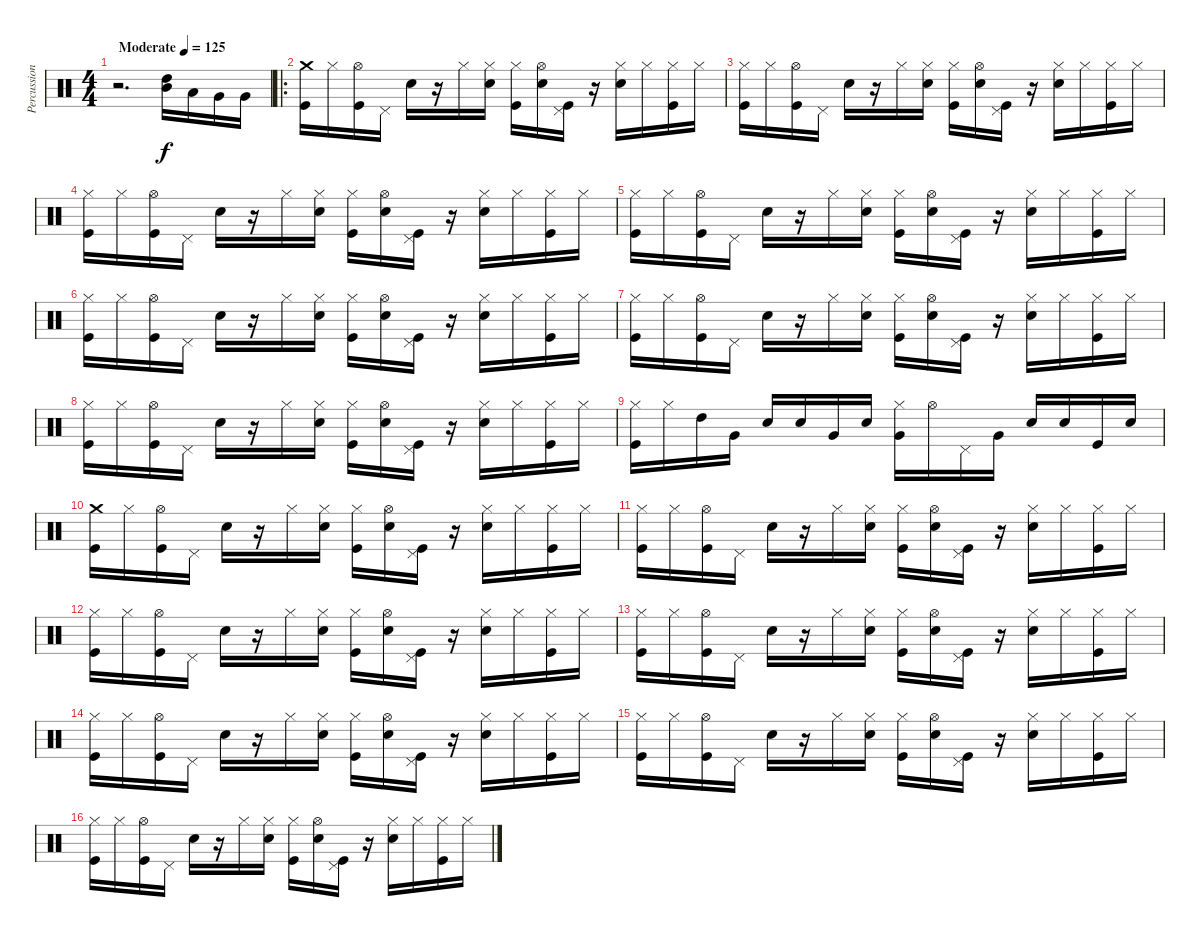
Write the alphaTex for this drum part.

\track ("Percussion" "Percussion") {instrument percussion}
\staff {score}
\articulation defaults
\ts (4 4)
\tempo (125 "Moderate")
\clef neutral
\ks c
r.2{d dy f} ("High Tom (hit)" "Mid Tom (hit)").16{bu 480} "Low Tom (hit)".16 "Very Low Tom (hit)".16 "Very Low Tom (hit)".16 |
\ro
("Crash medium (hit)" "Kick (hit)").16 "Hi-Hat (closed)".16 ("Hi-Hat (open)" "Kick (hit)").16 "Pedal Hi-Hat (hit)".16 "Electric Snare (hit)".16 r.16 "Hi-Hat (closed)".16 ("Hi-Hat (closed)" "Electric Snare (hit)").16 ("Hi-Hat (closed)" "Kick (hit)").16 ("Hi-Hat (open)" "Electric Snare (hit)").16 ("Pedal Hi-Hat (hit)" "Kick (hit)").16 r.16 ("Hi-Hat (closed)" "Electric Snare (hit)").16 "Hi-Hat (closed)".16 ("Hi-Hat (closed)" "Kick (hit)").16 "Hi-Hat (closed)".16 |
("Hi-Hat (closed)" "Kick (hit)").16 "Hi-Hat (closed)".16 ("Hi-Hat (open)" "Kick (hit)").16 "Pedal Hi-Hat (hit)".16 "Electric Snare (hit)".16 r.16 "Hi-Hat (closed)".16 ("Hi-Hat (closed)" "Electric Snare (hit)").16 ("Hi-Hat (closed)" "Kick (hit)").16 ("Hi-Hat (open)" "Electric Snare (hit)").16 ("Pedal Hi-Hat (hit)" "Kick (hit)").16 r.16 ("Hi-Hat (closed)" "Electric Snare (hit)").16 "Hi-Hat (closed)".16 ("Hi-Hat (closed)" "Kick (hit)").16 "Hi-Hat (closed)".16 |
("Hi-Hat (closed)" "Kick (hit)").16 "Hi-Hat (closed)".16 ("Hi-Hat (open)" "Kick (hit)").16 "Pedal Hi-Hat (hit)".16 "Electric Snare (hit)".16 r.16 "Hi-Hat (closed)".16 ("Hi-Hat (closed)" "Electric Snare (hit)").16 ("Hi-Hat (closed)" "Kick (hit)").16 ("Hi-Hat (open)" "Electric Snare (hit)").16 ("Pedal Hi-Hat (hit)" "Kick (hit)").16 r.16 ("Hi-Hat (closed)" "Electric Snare (hit)").16 "Hi-Hat (closed)".16 ("Hi-Hat (closed)" "Kick (hit)").16 "Hi-Hat (closed)".16 |
("Hi-Hat (closed)" "Kick (hit)").16 "Hi-Hat (closed)".16 ("Hi-Hat (open)" "Kick (hit)").16 "Pedal Hi-Hat (hit)".16 "Electric Snare (hit)".16 r.16 "Hi-Hat (closed)".16 ("Hi-Hat (closed)" "Electric Snare (hit)").16 ("Hi-Hat (closed)" "Kick (hit)").16 ("Hi-Hat (open)" "Electric Snare (hit)").16 ("Pedal Hi-Hat (hit)" "Kick (hit)").16 r.16 ("Hi-Hat (closed)" "Electric Snare (hit)").16 "Hi-Hat (closed)".16 ("Hi-Hat (closed)" "Kick (hit)").16 "Hi-Hat (closed)".16 |
("Hi-Hat (closed)" "Kick (hit)").16 "Hi-Hat (closed)".16 ("Hi-Hat (open)" "Kick (hit)").16 "Pedal Hi-Hat (hit)".16 "Electric Snare (hit)".16 r.16 "Hi-Hat (closed)".16 ("Hi-Hat (closed)" "Electric Snare (hit)").16 ("Hi-Hat (closed)" "Kick (hit)").16 ("Hi-Hat (open)" "Electric Snare (hit)").16 ("Pedal Hi-Hat (hit)" "Kick (hit)").16 r.16 ("Hi-Hat (closed)" "Electric Snare (hit)").16 "Hi-Hat (closed)".16 ("Hi-Hat (closed)" "Kick (hit)").16 "Hi-Hat (closed)".16 |
("Hi-Hat (closed)" "Kick (hit)").16 "Hi-Hat (closed)".16 ("Hi-Hat (open)" "Kick (hit)").16 "Pedal Hi-Hat (hit)".16 "Electric Snare (hit)".16 r.16 "Hi-Hat (closed)".16 ("Hi-Hat (closed)" "Electric Snare (hit)").16 ("Hi-Hat (closed)" "Kick (hit)").16 ("Hi-Hat (open)" "Electric Snare (hit)").16 ("Pedal Hi-Hat (hit)" "Kick (hit)").16 r.16 ("Hi-Hat (closed)" "Electric Snare (hit)").16 "Hi-Hat (closed)".16 ("Hi-Hat (closed)" "Kick (hit)").16 "Hi-Hat (closed)".16 |
("Hi-Hat (closed)" "Kick (hit)").16 "Hi-Hat (closed)".16 ("Hi-Hat (open)" "Kick (hit)").16 "Pedal Hi-Hat (hit)".16 "Electric Snare (hit)".16 r.16 "Hi-Hat (closed)".16 ("Hi-Hat (closed)" "Electric Snare (hit)").16 ("Hi-Hat (closed)" "Kick (hit)").16 ("Hi-Hat (open)" "Electric Snare (hit)").16 ("Pedal Hi-Hat (hit)" "Kick (hit)").16 r.16 ("Hi-Hat (closed)" "Electric Snare (hit)").16 "Hi-Hat (closed)".16 ("Hi-Hat (closed)" "Kick (hit)").16 "Hi-Hat (closed)".16 |
("Hi-Hat (closed)" "Kick (hit)").16 "Hi-Hat (closed)".16 "High Tom (hit)".16 "Very Low Tom (hit)".16 "Electric Snare (hit)".16 "Electric Snare (hit)".16 "Very Low Tom (hit)".16 "Electric Snare (hit)".16 ("Hi-Hat (closed)" "Very Low Tom (hit)").16 "Hi-Hat (open)".16 "Pedal Hi-Hat (hit)".16 "Very Low Tom (hit)".16 "Electric Snare (hit)".16 "Electric Snare (hit)".16 "Kick (hit)".16 "Electric Snare (hit)".16 |
("Crash medium (hit)" "Kick (hit)").16 "Hi-Hat (closed)".16 ("Hi-Hat (open)" "Kick (hit)").16 "Pedal Hi-Hat (hit)".16 "Electric Snare (hit)".16 r.16 "Hi-Hat (closed)".16 ("Hi-Hat (closed)" "Electric Snare (hit)").16 ("Hi-Hat (closed)" "Kick (hit)").16 ("Hi-Hat (open)" "Electric Snare (hit)").16 ("Pedal Hi-Hat (hit)" "Kick (hit)").16 r.16 ("Hi-Hat (closed)" "Electric Snare (hit)").16 "Hi-Hat (closed)".16 ("Hi-Hat (closed)" "Kick (hit)").16 "Hi-Hat (closed)".16 |
("Hi-Hat (closed)" "Kick (hit)").16 "Hi-Hat (closed)".16 ("Hi-Hat (open)" "Kick (hit)").16 "Pedal Hi-Hat (hit)".16 "Electric Snare (hit)".16 r.16 "Hi-Hat (closed)".16 ("Hi-Hat (closed)" "Electric Snare (hit)").16 ("Hi-Hat (closed)" "Kick (hit)").16 ("Hi-Hat (open)" "Electric Snare (hit)").16 ("Pedal Hi-Hat (hit)" "Kick (hit)").16 r.16 ("Hi-Hat (closed)" "Electric Snare (hit)").16 "Hi-Hat (closed)".16 ("Hi-Hat (closed)" "Kick (hit)").16 "Hi-Hat (closed)".16 |
("Hi-Hat (closed)" "Kick (hit)").16 "Hi-Hat (closed)".16 ("Hi-Hat (open)" "Kick (hit)").16 "Pedal Hi-Hat (hit)".16 "Electric Snare (hit)".16 r.16 "Hi-Hat (closed)".16 ("Hi-Hat (closed)" "Electric Snare (hit)").16 ("Hi-Hat (closed)" "Kick (hit)").16 ("Hi-Hat (open)" "Electric Snare (hit)").16 ("Pedal Hi-Hat (hit)" "Kick (hit)").16 r.16 ("Hi-Hat (closed)" "Electric Snare (hit)").16 "Hi-Hat (closed)".16 ("Hi-Hat (closed)" "Kick (hit)").16 "Hi-Hat (closed)".16 |
("Hi-Hat (closed)" "Kick (hit)").16 "Hi-Hat (closed)".16 ("Hi-Hat (open)" "Kick (hit)").16 "Pedal Hi-Hat (hit)".16 "Electric Snare (hit)".16 r.16 "Hi-Hat (closed)".16 ("Hi-Hat (closed)" "Electric Snare (hit)").16 ("Hi-Hat (closed)" "Kick (hit)").16 ("Hi-Hat (open)" "Electric Snare (hit)").16 ("Pedal Hi-Hat (hit)" "Kick (hit)").16 r.16 ("Hi-Hat (closed)" "Electric Snare (hit)").16 "Hi-Hat (closed)".16 ("Hi-Hat (closed)" "Kick (hit)").16 "Hi-Hat (closed)".16 |
("Hi-Hat (closed)" "Kick (hit)").16 "Hi-Hat (closed)".16 ("Hi-Hat (open)" "Kick (hit)").16 "Pedal Hi-Hat (hit)".16 "Electric Snare (hit)".16 r.16 "Hi-Hat (closed)".16 ("Hi-Hat (closed)" "Electric Snare (hit)").16 ("Hi-Hat (closed)" "Kick (hit)").16 ("Hi-Hat (open)" "Electric Snare (hit)").16 ("Pedal Hi-Hat (hit)" "Kick (hit)").16 r.16 ("Hi-Hat (closed)" "Electric Snare (hit)").16 "Hi-Hat (closed)".16 ("Hi-Hat (closed)" "Kick (hit)").16 "Hi-Hat (closed)".16 |
("Hi-Hat (closed)" "Kick (hit)").16 "Hi-Hat (closed)".16 ("Hi-Hat (open)" "Kick (hit)").16 "Pedal Hi-Hat (hit)".16 "Electric Snare (hit)".16 r.16 "Hi-Hat (closed)".16 ("Hi-Hat (closed)" "Electric Snare (hit)").16 ("Hi-Hat (closed)" "Kick (hit)").16 ("Hi-Hat (open)" "Electric Snare (hit)").16 ("Pedal Hi-Hat (hit)" "Kick (hit)").16 r.16 ("Hi-Hat (closed)" "Electric Snare (hit)").16 "Hi-Hat (closed)".16 ("Hi-Hat (closed)" "Kick (hit)").16 "Hi-Hat (closed)".16 |
("Hi-Hat (closed)" "Kick (hit)").16 "Hi-Hat (closed)".16 ("Hi-Hat (open)" "Kick (hit)").16 "Pedal Hi-Hat (hit)".16 "Electric Snare (hit)".16 r.16 "Hi-Hat (closed)".16 ("Hi-Hat (closed)" "Electric Snare (hit)").16 ("Hi-Hat (closed)" "Kick (hit)").16 ("Hi-Hat (open)" "Electric Snare (hit)").16 ("Pedal Hi-Hat (hit)" "Kick (hit)").16 r.16 ("Hi-Hat (closed)" "Electric Snare (hit)").16 "Hi-Hat (closed)".16 ("Hi-Hat (closed)" "Kick (hit)").16 "Hi-Hat (closed)".16
